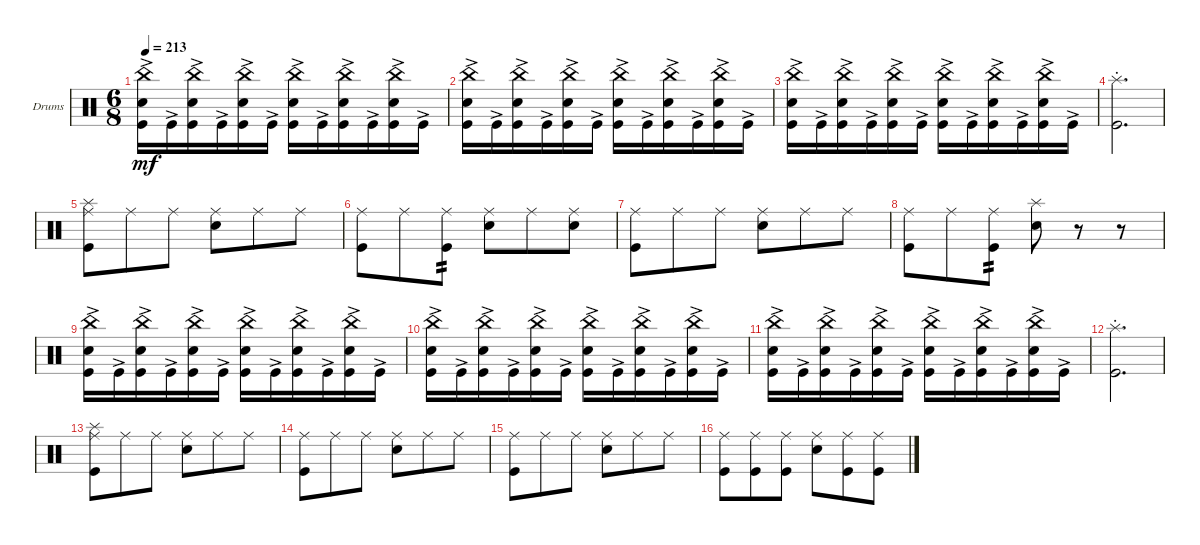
\bracketExtendMode groupsimilarinstruments
\firstSystemTrackNameOrientation horizontal
\otherSystemsTrackNameOrientation horizontal
\track ("Drumkit" "Drums") {instrument percussion}
\staff {score}
\articulation defaults
\ts (6 8)
\tempo 213
\clef neutral
\ks c
("Kick (hit)"{ac} "Snare (hit) 2"{ac} "China (hit)"{ac}).16{dy mf} "Kick (hit)"{ac}.16 ("Kick (hit)"{ac} "Snare (hit) 2"{ac} "China (hit)"{ac}).16 "Kick (hit)"{ac}.16 ("Kick (hit)"{ac} "Snare (hit) 2"{ac} "China (hit)"{ac}).16 "Kick (hit)"{ac}.16 ("Kick (hit)"{ac} "Snare (hit) 2"{ac} "China (hit)"{ac}).16 "Kick (hit)"{ac}.16 ("Kick (hit)"{ac} "Snare (hit) 2"{ac} "China (hit)"{ac}).16 "Kick (hit)"{ac}.16 ("Kick (hit)"{ac} "Snare (hit) 2"{ac} "China (hit)"{ac}).16 "Kick (hit)"{ac}.16 |
("Kick (hit)"{ac} "Snare (hit) 2"{ac} "China (hit)"{ac}).16 "Kick (hit)"{ac}.16 ("Kick (hit)"{ac} "Snare (hit) 2"{ac} "China (hit)"{ac}).16 "Kick (hit)"{ac}.16 ("Kick (hit)"{ac} "Snare (hit) 2"{ac} "China (hit)"{ac}).16 "Kick (hit)"{ac}.16 ("Kick (hit)"{ac} "Snare (hit) 2"{ac} "China (hit)"{ac}).16 "Kick (hit)"{ac}.16 ("Kick (hit)"{ac} "Snare (hit) 2"{ac} "China (hit)"{ac}).16 "Kick (hit)"{ac}.16 ("Kick (hit)"{ac} "Snare (hit) 2"{ac} "China (hit)"{ac}).16 "Kick (hit)"{ac}.16 |
("Kick (hit)"{ac} "Snare (hit) 2"{ac} "China (hit)"{ac}).16 "Kick (hit)"{ac}.16 ("Kick (hit)"{ac} "Snare (hit) 2"{ac} "China (hit)"{ac}).16 "Kick (hit)"{ac}.16 ("Kick (hit)"{ac} "Snare (hit) 2"{ac} "China (hit)"{ac}).16 "Kick (hit)"{ac}.16 ("Kick (hit)"{ac} "Snare (hit) 2"{ac} "China (hit)"{ac}).16 "Kick (hit)"{ac}.16 ("Kick (hit)"{ac} "Snare (hit) 2"{ac} "China (hit)"{ac}).16 "Kick (hit)"{ac}.16 ("Kick (hit)"{ac} "Snare (hit) 2"{ac} "China (hit)"{ac}).16 "Kick (hit)"{ac}.16 |
("Kick (hit)" "Splash (hit)"{st}).2{d} |
("Kick (hit)" "Ride (middle)" "Splash (hit)").8 "Ride (middle)".8 "Ride (middle)".8 ("Snare (hit) 2" "Ride (middle)").8 "Ride (middle)".8 "Ride (middle)".8 |
("Kick (hit)" "Ride (middle)").8 "Ride (middle)".8 ("Kick (hit)" "Ride (middle)").8{tp 2} ("Snare (hit) 2" "Ride (middle)").8 "Ride (middle)".8 ("Snare (hit) 2" "Ride (middle)").8 |
("Kick (hit)" "Ride (middle)").8 "Ride (middle)".8 "Ride (middle)".8 ("Snare (hit) 2" "Ride (middle)").8 "Ride (middle)".8 "Ride (middle)".8 |
("Ride (middle)" "Kick (hit)").8 "Ride (middle)".8 ("Kick (hit)" "Ride (middle)").8{tp 2} ("Snare (hit) 2" "Splash (hit)").8 r.8 r.8 |
("Kick (hit)"{ac} "Snare (hit) 2"{ac} "China (hit)"{ac}).16 "Kick (hit)"{ac}.16 ("Kick (hit)"{ac} "Snare (hit) 2"{ac} "China (hit)"{ac}).16 "Kick (hit)"{ac}.16 ("Kick (hit)"{ac} "Snare (hit) 2"{ac} "China (hit)"{ac}).16 "Kick (hit)"{ac}.16 ("Kick (hit)"{ac} "Snare (hit) 2"{ac} "China (hit)"{ac}).16 "Kick (hit)"{ac}.16 ("Kick (hit)"{ac} "Snare (hit) 2"{ac} "China (hit)"{ac}).16 "Kick (hit)"{ac}.16 ("Kick (hit)"{ac} "Snare (hit) 2"{ac} "China (hit)"{ac}).16 "Kick (hit)"{ac}.16 |
("Kick (hit)"{ac} "Snare (hit) 2"{ac} "China (hit)"{ac}).16 "Kick (hit)"{ac}.16 ("Kick (hit)"{ac} "Snare (hit) 2"{ac} "China (hit)"{ac}).16 "Kick (hit)"{ac}.16 ("Kick (hit)"{ac} "Snare (hit) 2"{ac} "China (hit)"{ac}).16 "Kick (hit)"{ac}.16 ("Kick (hit)"{ac} "Snare (hit) 2"{ac} "China (hit)"{ac}).16 "Kick (hit)"{ac}.16 ("Kick (hit)"{ac} "Snare (hit) 2"{ac} "China (hit)"{ac}).16 "Kick (hit)"{ac}.16 ("Kick (hit)"{ac} "Snare (hit) 2"{ac} "China (hit)"{ac}).16 "Kick (hit)"{ac}.16 |
("Kick (hit)"{ac} "Snare (hit) 2"{ac} "China (hit)"{ac}).16 "Kick (hit)"{ac}.16 ("Kick (hit)"{ac} "Snare (hit) 2"{ac} "China (hit)"{ac}).16 "Kick (hit)"{ac}.16 ("Kick (hit)"{ac} "Snare (hit) 2"{ac} "China (hit)"{ac}).16 "Kick (hit)"{ac}.16 ("Kick (hit)"{ac} "Snare (hit) 2"{ac} "China (hit)"{ac}).16 "Kick (hit)"{ac}.16 ("Kick (hit)"{ac} "Snare (hit) 2"{ac} "China (hit)"{ac}).16 "Kick (hit)"{ac}.16 ("Kick (hit)"{ac} "Snare (hit) 2"{ac} "China (hit)"{ac}).16 "Kick (hit)"{ac}.16 |
("Kick (hit)" "Splash (hit)"{st}).2{d} |
("Kick (hit)" "Splash (hit)" "Ride (middle)").8 "Ride (middle)".8 "Ride (middle)".8 ("Snare (hit) 2" "Ride (middle)").8 "Ride (middle)".8 "Ride (middle)".8 |
("Kick (hit)" "Ride (middle)").8 "Ride (middle)".8 "Ride (middle)".8 ("Snare (hit) 2" "Ride (middle)").8 "Ride (middle)".8 "Ride (middle)".8 |
("Kick (hit)" "Ride (middle)").8 "Ride (middle)".8 "Ride (middle)".8 ("Snare (hit) 2" "Ride (middle)").8 "Ride (middle)".8 "Ride (middle)".8 |
("Kick (hit)" "Ride (middle)").8 ("Kick (hit)" "Ride (middle)").8 ("Kick (hit)" "Ride (middle)").8 ("Snare (hit) 2" "Ride (middle)").8 ("Kick (hit)" "Ride (middle)").8 ("Kick (hit)" "Ride (middle)").8
